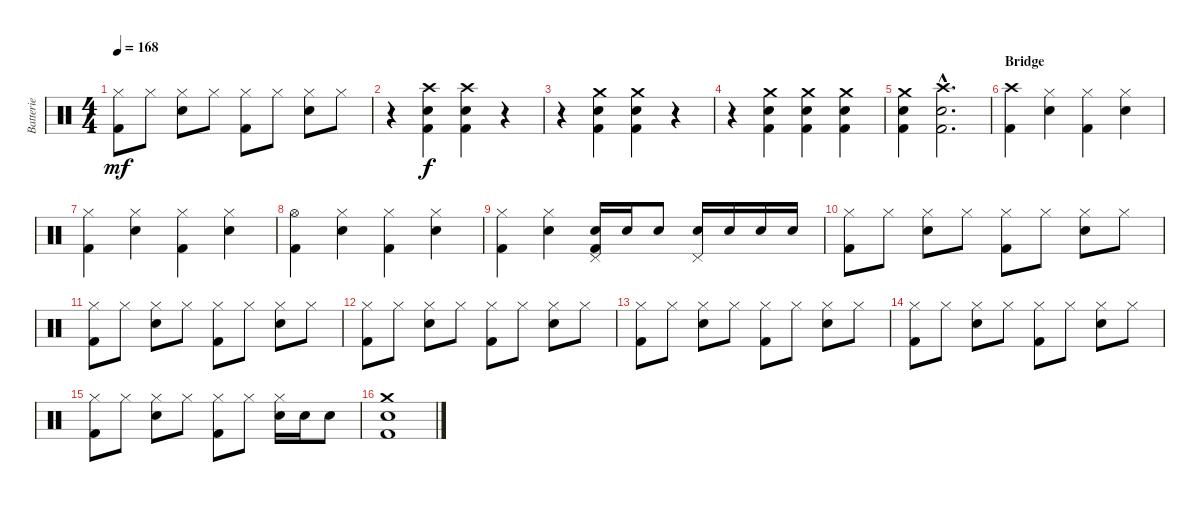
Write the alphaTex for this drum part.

\track ("Batterie" "Batterie") {instrument percussion}
\staff {score}
\articulation defaults
\ts (4 4)
\tempo 168
\clef neutral
\ks c
("Hi-Hat (closed)" "Kick (hit) 2").8{dy mf} "Hi-Hat (closed)".8 ("Hi-Hat (closed)" "Snare (hit) 2").8 "Hi-Hat (closed)".8 ("Hi-Hat (closed)" "Kick (hit) 2").8 "Hi-Hat (closed)".8 ("Hi-Hat (closed)" "Snare (hit) 2").8 "Hi-Hat (closed)".8 |
r.4 ("Crash high (hit)" "Snare (hit) 2" "Kick (hit) 2").4{dy f} ("Crash high (hit)" "Snare (hit) 2" "Kick (hit) 2").4 r.4 |
r.4 ("Crash medium (hit)" "Snare (hit) 2" "Kick (hit) 2").4 ("Crash medium (hit)" "Snare (hit) 2" "Kick (hit) 2").4 r.4 |
r.4 ("Crash medium (hit)" "Snare (hit) 2" "Kick (hit) 2").4 ("Crash medium (hit)" "Snare (hit) 2" "Kick (hit) 2").4 ("Crash medium (hit)" "Snare (hit) 2" "Kick (hit) 2").4 |
("Crash medium (hit)" "Snare (hit) 2" "Kick (hit) 2").4 ("Crash high (hit)"{hac} "Snare (hit) 2"{hac} "Kick (hit) 2"{hac}).2{d} |
\section ("" "Bridge")
("Crash high (hit)" "Kick (hit) 2").4 ("Hi-Hat (closed)" "Snare (hit) 2").4 ("Hi-Hat (closed)" "Kick (hit) 2").4 ("Hi-Hat (closed)" "Snare (hit) 2").4 |
("Hi-Hat (closed)" "Kick (hit) 2").4 ("Hi-Hat (closed)" "Snare (hit) 2").4 ("Hi-Hat (closed)" "Kick (hit) 2").4 ("Hi-Hat (closed)" "Snare (hit) 2").4 |
("Hi-Hat (open)" "Kick (hit) 2").4 ("Hi-Hat (closed)" "Snare (hit) 2").4 ("Hi-Hat (closed)" "Kick (hit) 2").4 ("Hi-Hat (closed)" "Snare (hit) 2").4 |
("Hi-Hat (closed)" "Kick (hit) 2").4 ("Hi-Hat (closed)" "Snare (hit) 2").4 ("Pedal Hi-Hat (hit)" "Snare (hit) 2" "Kick (hit) 2").16 "Snare (hit) 2".16 "Snare (hit) 2".8 ("Pedal Hi-Hat (hit)" "Snare (hit) 2").16 "Snare (hit) 2".16 "Snare (hit) 2".16 "Snare (hit) 2".16 |
("Hi-Hat (closed)" "Kick (hit) 2").8 "Hi-Hat (closed)".8 ("Hi-Hat (closed)" "Snare (hit) 2").8 "Hi-Hat (closed)".8 ("Hi-Hat (closed)" "Kick (hit) 2").8 "Hi-Hat (closed)".8 ("Hi-Hat (closed)" "Snare (hit) 2").8 "Hi-Hat (closed)".8 |
("Hi-Hat (closed)" "Kick (hit) 2").8 "Hi-Hat (closed)".8 ("Hi-Hat (closed)" "Snare (hit) 2").8 "Hi-Hat (closed)".8 ("Hi-Hat (closed)" "Kick (hit) 2").8 "Hi-Hat (closed)".8 ("Hi-Hat (closed)" "Snare (hit) 2").8 "Hi-Hat (closed)".8 |
("Hi-Hat (closed)" "Kick (hit) 2").8 "Hi-Hat (closed)".8 ("Hi-Hat (closed)" "Snare (hit) 2").8 "Hi-Hat (closed)".8 ("Hi-Hat (closed)" "Kick (hit) 2").8 "Hi-Hat (closed)".8 ("Hi-Hat (closed)" "Snare (hit) 2").8 "Hi-Hat (closed)".8 |
("Hi-Hat (closed)" "Kick (hit) 2").8 "Hi-Hat (closed)".8 ("Hi-Hat (closed)" "Snare (hit) 2").8 "Hi-Hat (closed)".8 ("Hi-Hat (closed)" "Kick (hit) 2").8 "Hi-Hat (closed)".8 ("Hi-Hat (closed)" "Snare (hit) 2").8 "Hi-Hat (closed)".8 |
("Hi-Hat (closed)" "Kick (hit) 2").8 "Hi-Hat (closed)".8 ("Hi-Hat (closed)" "Snare (hit) 2").8 "Hi-Hat (closed)".8 ("Hi-Hat (closed)" "Kick (hit) 2").8 "Hi-Hat (closed)".8 ("Hi-Hat (closed)" "Snare (hit) 2").8 "Hi-Hat (closed)".8 |
("Hi-Hat (closed)" "Kick (hit) 2").8 "Hi-Hat (closed)".8 ("Hi-Hat (closed)" "Snare (hit) 2").8 "Hi-Hat (closed)".8 ("Hi-Hat (closed)" "Kick (hit) 2").8 "Hi-Hat (closed)".8 ("Hi-Hat (closed)" "Snare (hit) 2").16 "Snare (hit) 2".16 "Snare (hit) 2".8 |
("Crash medium (hit)" "Snare (hit) 2" "Kick (hit) 2").1
